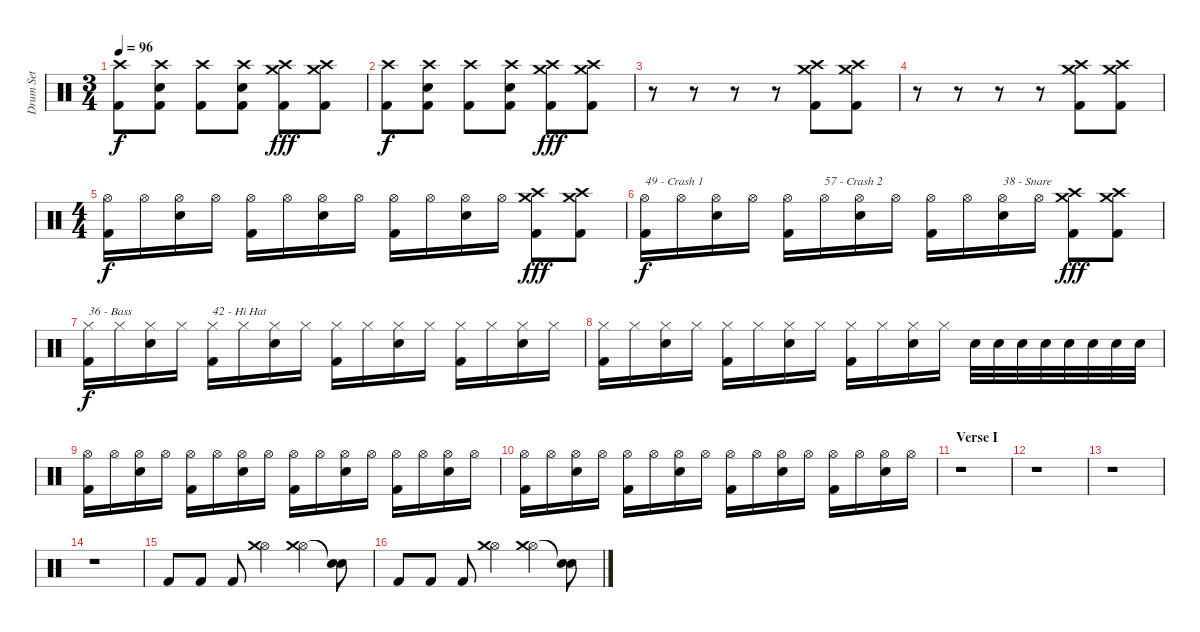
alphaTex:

\track ("Drum Set" "Drum Set") {instrument percussion}
\staff {score}
\articulation defaults
\ts (3 4)
\tempo 96
\clef neutral
\ks c
("Crash high (hit)" "Kick (hit) 2").8{dy f} ("Crash high (hit)" "Snare (hit) 2" "Kick (hit) 2").8 ("Crash high (hit)" "Kick (hit) 2").8 ("Crash high (hit)" "Snare (hit) 2" "Kick (hit) 2").8 ("Crash high (hit)" "Crash medium (hit)" "Kick (hit) 2").8{dy fff} ("Crash high (hit)" "Crash medium (hit)" "Kick (hit) 2").8 |
\section ("" "")
("Crash high (hit)" "Kick (hit) 2").8{dy f} ("Crash high (hit)" "Snare (hit) 2" "Kick (hit) 2").8 ("Crash high (hit)" "Kick (hit) 2").8 ("Crash high (hit)" "Snare (hit) 2" "Kick (hit) 2").8 ("Crash high (hit)" "Crash medium (hit)" "Kick (hit) 2").8{dy fff} ("Crash high (hit)" "Crash medium (hit)" "Kick (hit) 2").8 |
r.8 r.8 r.8 r.8 ("Crash high (hit)" "Crash medium (hit)" "Kick (hit) 2").8 ("Crash high (hit)" "Crash medium (hit)" "Kick (hit) 2").8 |
r.8 r.8 r.8 r.8 ("Crash high (hit)" "Crash medium (hit)" "Kick (hit) 2").8 ("Crash high (hit)" "Crash medium (hit)" "Kick (hit) 2").8 |
\ts (4 4)
("Hi-Hat (open)" "Kick (hit) 2").16{dy f} "Hi-Hat (open)".16 ("Hi-Hat (open)" "Snare (hit) 2").16 "Hi-Hat (open)".16 ("Hi-Hat (open)" "Kick (hit) 2").16 "Hi-Hat (open)".16 ("Hi-Hat (open)" "Snare (hit) 2").16 "Hi-Hat (open)".16 ("Hi-Hat (open)" "Kick (hit) 2").16 "Hi-Hat (open)".16 ("Hi-Hat (open)" "Snare (hit) 2").16 "Hi-Hat (open)".16 ("Crash high (hit)" "Crash medium (hit)" "Kick (hit) 2").8{dy fff} ("Crash high (hit)" "Crash medium (hit)" "Kick (hit) 2").8 |
("Hi-Hat (open)" "Kick (hit) 2").16{txt "49 - Crash 1" dy f} "Hi-Hat (open)".16 ("Hi-Hat (open)" "Snare (hit) 2").16 "Hi-Hat (open)".16 ("Hi-Hat (open)" "Kick (hit) 2").16 "Hi-Hat (open)".16{txt "57 - Crash 2"} ("Hi-Hat (open)" "Snare (hit) 2").16 "Hi-Hat (open)".16 ("Hi-Hat (open)" "Kick (hit) 2").16 "Hi-Hat (open)".16 ("Hi-Hat (open)" "Snare (hit) 2").16{txt "38 - Snare"} "Hi-Hat (open)".16 ("Crash high (hit)" "Crash medium (hit)" "Kick (hit) 2").8{dy fff} ("Crash high (hit)" "Crash medium (hit)" "Kick (hit) 2").8 |
\section ("" "")
("Hi-Hat (closed)" "Kick (hit) 2").16{txt "36 - Bass" dy f} "Hi-Hat (closed)".16 ("Hi-Hat (closed)" "Snare (hit) 2").16 "Hi-Hat (closed)".16 ("Hi-Hat (closed)" "Kick (hit) 2").16{txt "42 - Hi Hat"} "Hi-Hat (closed)".16 ("Hi-Hat (closed)" "Snare (hit) 2").16 "Hi-Hat (closed)".16 ("Hi-Hat (closed)" "Kick (hit) 2").16 "Hi-Hat (closed)".16 ("Hi-Hat (closed)" "Snare (hit) 2").16 "Hi-Hat (closed)".16 ("Hi-Hat (closed)" "Kick (hit) 2").16 "Hi-Hat (closed)".16 ("Hi-Hat (closed)" "Snare (hit) 2").16 "Hi-Hat (closed)".16 |
("Hi-Hat (closed)" "Kick (hit) 2").16 "Hi-Hat (closed)".16 ("Hi-Hat (closed)" "Snare (hit) 2").16 "Hi-Hat (closed)".16 ("Hi-Hat (closed)" "Kick (hit) 2").16 "Hi-Hat (closed)".16 ("Hi-Hat (closed)" "Snare (hit) 2").16 "Hi-Hat (closed)".16 ("Hi-Hat (closed)" "Kick (hit) 2").16 "Hi-Hat (closed)".16 ("Hi-Hat (closed)" "Snare (hit) 2").16 "Hi-Hat (closed)".16 "Snare (hit) 2".32 "Snare (hit) 2".32 "Snare (hit) 2".32 "Snare (hit) 2".32 "Snare (hit) 2".32 "Snare (hit) 2".32 "Snare (hit) 2".32 "Snare (hit) 2".32 |
("Hi-Hat (open)" "Kick (hit) 2").16 "Hi-Hat (open)".16 ("Hi-Hat (open)" "Snare (hit) 2").16 "Hi-Hat (open)".16 ("Hi-Hat (open)" "Kick (hit) 2").16 "Hi-Hat (open)".16 ("Hi-Hat (open)" "Snare (hit) 2").16 "Hi-Hat (open)".16 ("Hi-Hat (open)" "Kick (hit) 2").16 "Hi-Hat (open)".16 ("Hi-Hat (open)" "Snare (hit) 2").16 "Hi-Hat (open)".16 ("Hi-Hat (open)" "Kick (hit) 2").16 "Hi-Hat (open)".16 ("Hi-Hat (open)" "Snare (hit) 2").16 "Hi-Hat (open)".16 |
("Hi-Hat (open)" "Kick (hit) 2").16 "Hi-Hat (open)".16 ("Hi-Hat (open)" "Snare (hit) 2").16 "Hi-Hat (open)".16 ("Hi-Hat (open)" "Kick (hit) 2").16 "Hi-Hat (open)".16 ("Hi-Hat (open)" "Snare (hit) 2").16 "Hi-Hat (open)".16 ("Hi-Hat (open)" "Kick (hit) 2").16 "Hi-Hat (open)".16 ("Hi-Hat (open)" "Snare (hit) 2").16 "Hi-Hat (open)".16 ("Hi-Hat (open)" "Kick (hit) 2").16 "Hi-Hat (open)".16 ("Hi-Hat (open)" "Snare (hit) 2").16 "Hi-Hat (open)".16 |
\section ("" "Verse I")
r.1 |
r.1 |
r.1 |
r.1 |
"Kick (hit) 2".8 "Kick (hit) 2".8 "Kick (hit) 2".8 ("Hi-Hat (open)" "Crash medium (hit)").4 ("Hi-Hat (open)" "Crash medium (hit)").4 ("Snare (hit)"{t} "Snare (hit)"{t}).8 |
"Kick (hit) 2".8 "Kick (hit) 2".8 "Kick (hit) 2".8 ("Hi-Hat (open)" "Crash medium (hit)").4 ("Hi-Hat (open)" "Crash medium (hit)").4 ("Snare (hit)"{t} "Snare (hit)"{t}).8
